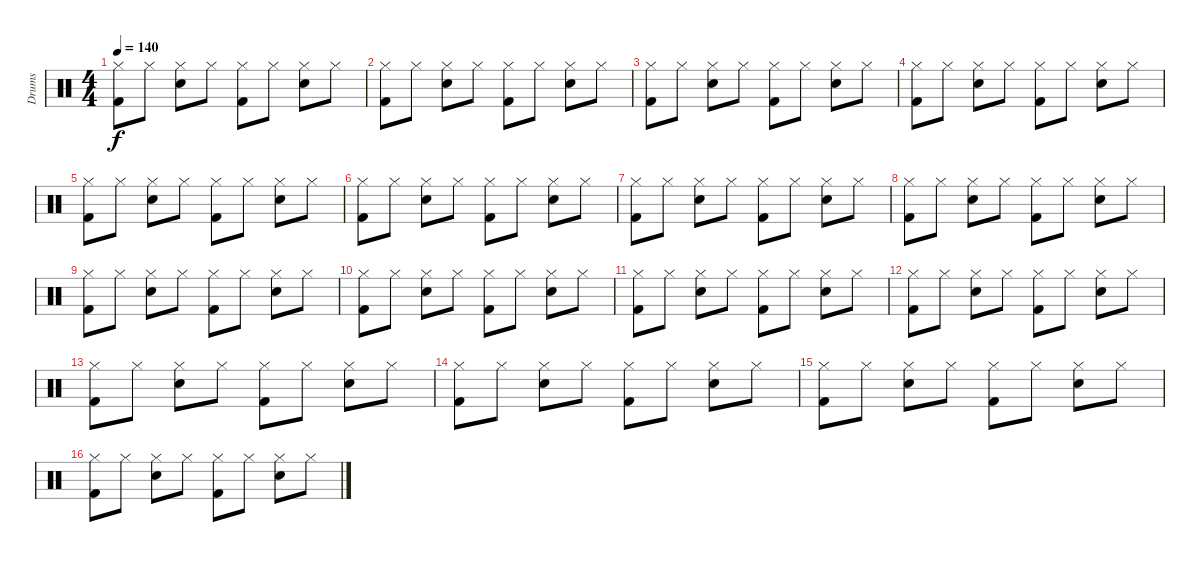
\track ("Drums" "Drums") {instrument percussion}
\staff {score}
\articulation defaults
\ts (4 4)
\tempo 140
\clef neutral
\ks c
("Hi-Hat (closed)" "Kick (hit) 2").8{dy f} "Hi-Hat (closed)".8 ("Hi-Hat (closed)" "Electric Snare (hit)").8 "Hi-Hat (closed)".8 ("Hi-Hat (closed)" "Kick (hit) 2").8 "Hi-Hat (closed)".8 ("Hi-Hat (closed)" "Electric Snare (hit)").8 "Hi-Hat (closed)".8 |
("Hi-Hat (closed)" "Kick (hit) 2").8 "Hi-Hat (closed)".8 ("Hi-Hat (closed)" "Electric Snare (hit)").8 "Hi-Hat (closed)".8 ("Hi-Hat (closed)" "Kick (hit) 2").8 "Hi-Hat (closed)".8 ("Hi-Hat (closed)" "Electric Snare (hit)").8 "Hi-Hat (closed)".8 |
("Hi-Hat (closed)" "Kick (hit) 2").8 "Hi-Hat (closed)".8 ("Hi-Hat (closed)" "Electric Snare (hit)").8 "Hi-Hat (closed)".8 ("Hi-Hat (closed)" "Kick (hit) 2").8 "Hi-Hat (closed)".8 ("Hi-Hat (closed)" "Electric Snare (hit)").8 "Hi-Hat (closed)".8 |
("Hi-Hat (closed)" "Kick (hit) 2").8 "Hi-Hat (closed)".8 ("Hi-Hat (closed)" "Electric Snare (hit)").8 "Hi-Hat (closed)".8 ("Hi-Hat (closed)" "Kick (hit) 2").8 "Hi-Hat (closed)".8 ("Hi-Hat (closed)" "Electric Snare (hit)").8 "Hi-Hat (closed)".8 |
("Hi-Hat (closed)" "Kick (hit) 2").8 "Hi-Hat (closed)".8 ("Hi-Hat (closed)" "Electric Snare (hit)").8 "Hi-Hat (closed)".8 ("Hi-Hat (closed)" "Kick (hit) 2").8 "Hi-Hat (closed)".8 ("Hi-Hat (closed)" "Electric Snare (hit)").8 "Hi-Hat (closed)".8 |
("Hi-Hat (closed)" "Kick (hit) 2").8 "Hi-Hat (closed)".8 ("Hi-Hat (closed)" "Electric Snare (hit)").8 "Hi-Hat (closed)".8 ("Hi-Hat (closed)" "Kick (hit) 2").8 "Hi-Hat (closed)".8 ("Hi-Hat (closed)" "Electric Snare (hit)").8 "Hi-Hat (closed)".8 |
("Hi-Hat (closed)" "Kick (hit) 2").8 "Hi-Hat (closed)".8 ("Hi-Hat (closed)" "Electric Snare (hit)").8 "Hi-Hat (closed)".8 ("Hi-Hat (closed)" "Kick (hit) 2").8 "Hi-Hat (closed)".8 ("Hi-Hat (closed)" "Electric Snare (hit)").8 "Hi-Hat (closed)".8 |
("Hi-Hat (closed)" "Kick (hit) 2").8 "Hi-Hat (closed)".8 ("Hi-Hat (closed)" "Electric Snare (hit)").8 "Hi-Hat (closed)".8 ("Hi-Hat (closed)" "Kick (hit) 2").8 "Hi-Hat (closed)".8 ("Hi-Hat (closed)" "Electric Snare (hit)").8 "Hi-Hat (closed)".8 |
("Hi-Hat (closed)" "Kick (hit) 2").8 "Hi-Hat (closed)".8 ("Hi-Hat (closed)" "Electric Snare (hit)").8 "Hi-Hat (closed)".8 ("Hi-Hat (closed)" "Kick (hit) 2").8 "Hi-Hat (closed)".8 ("Hi-Hat (closed)" "Electric Snare (hit)").8 "Hi-Hat (closed)".8 |
("Hi-Hat (closed)" "Kick (hit) 2").8 "Hi-Hat (closed)".8 ("Hi-Hat (closed)" "Electric Snare (hit)").8 "Hi-Hat (closed)".8 ("Hi-Hat (closed)" "Kick (hit) 2").8 "Hi-Hat (closed)".8 ("Hi-Hat (closed)" "Electric Snare (hit)").8 "Hi-Hat (closed)".8 |
("Hi-Hat (closed)" "Kick (hit) 2").8 "Hi-Hat (closed)".8 ("Hi-Hat (closed)" "Electric Snare (hit)").8 "Hi-Hat (closed)".8 ("Hi-Hat (closed)" "Kick (hit) 2").8 "Hi-Hat (closed)".8 ("Hi-Hat (closed)" "Electric Snare (hit)").8 "Hi-Hat (closed)".8 |
("Hi-Hat (closed)" "Kick (hit) 2").8 "Hi-Hat (closed)".8 ("Hi-Hat (closed)" "Electric Snare (hit)").8 "Hi-Hat (closed)".8 ("Hi-Hat (closed)" "Kick (hit) 2").8 "Hi-Hat (closed)".8 ("Hi-Hat (closed)" "Electric Snare (hit)").8 "Hi-Hat (closed)".8 |
("Hi-Hat (closed)" "Kick (hit) 2").8 "Hi-Hat (closed)".8 ("Hi-Hat (closed)" "Electric Snare (hit)").8 "Hi-Hat (closed)".8 ("Hi-Hat (closed)" "Kick (hit) 2").8 "Hi-Hat (closed)".8 ("Hi-Hat (closed)" "Electric Snare (hit)").8 "Hi-Hat (closed)".8 |
("Hi-Hat (closed)" "Kick (hit) 2").8 "Hi-Hat (closed)".8 ("Hi-Hat (closed)" "Electric Snare (hit)").8 "Hi-Hat (closed)".8 ("Hi-Hat (closed)" "Kick (hit) 2").8 "Hi-Hat (closed)".8 ("Hi-Hat (closed)" "Electric Snare (hit)").8 "Hi-Hat (closed)".8 |
("Hi-Hat (closed)" "Kick (hit) 2").8 "Hi-Hat (closed)".8 ("Hi-Hat (closed)" "Electric Snare (hit)").8 "Hi-Hat (closed)".8 ("Hi-Hat (closed)" "Kick (hit) 2").8 "Hi-Hat (closed)".8 ("Hi-Hat (closed)" "Electric Snare (hit)").8 "Hi-Hat (closed)".8 |
("Hi-Hat (closed)" "Kick (hit) 2").8 "Hi-Hat (closed)".8 ("Hi-Hat (closed)" "Electric Snare (hit)").8 "Hi-Hat (closed)".8 ("Hi-Hat (closed)" "Kick (hit) 2").8 "Hi-Hat (closed)".8 ("Hi-Hat (closed)" "Electric Snare (hit)").8 "Hi-Hat (closed)".8
